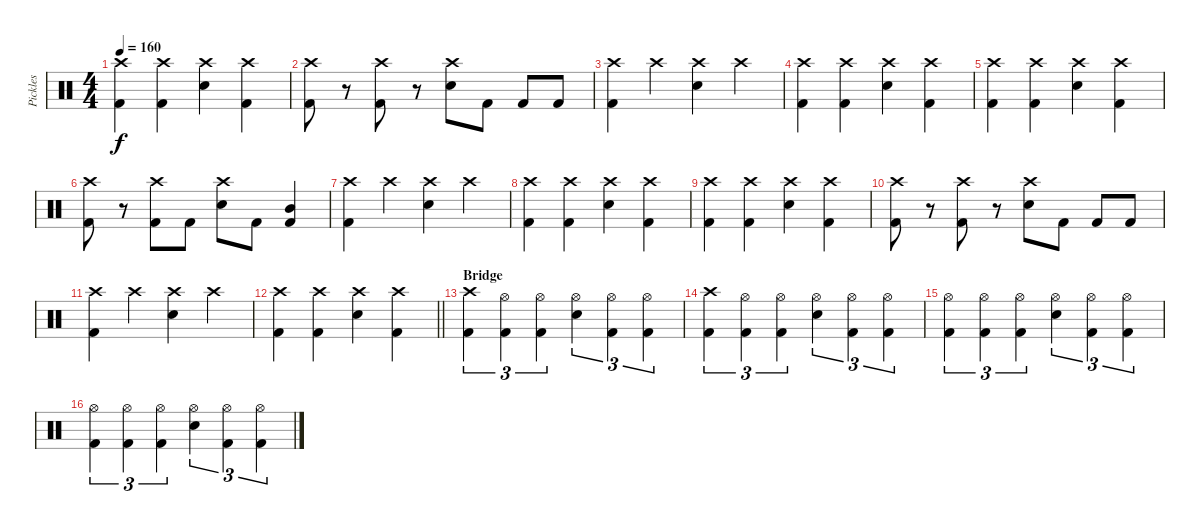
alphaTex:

\track ("Pickles" "Pickles") {instrument percussion}
\staff {score}
\articulation defaults
\ts (4 4)
\tempo 160
\clef neutral
\ks c
("Crash high (hit)" "Kick (hit) 2").4{dy f} ("Crash high (hit)" "Kick (hit) 2").4 ("Crash high (hit)" "Electric Snare (hit)").4 ("Crash high (hit)" "Kick (hit) 2").4 |
("Crash high (hit)" "Kick (hit) 2").8 r.8 ("Crash high (hit)" "Kick (hit) 2").8 r.8 ("Crash high (hit)" "Electric Snare (hit)").8 "Kick (hit) 2".8 "Kick (hit) 2".8 "Kick (hit) 2".8 |
("Crash high (hit)" "Kick (hit) 2").4 "Crash high (hit)".4 ("Crash high (hit)" "Electric Snare (hit)").4 "Crash high (hit)".4 |
("Crash high (hit)" "Kick (hit) 2").4 ("Crash high (hit)" "Kick (hit) 2").4 ("Crash high (hit)" "Electric Snare (hit)").4 ("Crash high (hit)" "Kick (hit) 2").4 |
("Crash high (hit)" "Kick (hit) 2").4 ("Crash high (hit)" "Kick (hit) 2").4 ("Crash high (hit)" "Electric Snare (hit)").4 ("Crash high (hit)" "Kick (hit) 2").4 |
("Crash high (hit)" "Kick (hit) 2").8 r.8 ("Crash high (hit)" "Kick (hit) 2").8 "Kick (hit) 2".8 ("Crash high (hit)" "Electric Snare (hit)").8 "Kick (hit) 2".8 ("Mid Tom (hit)" "Kick (hit) 2").4 |
("Crash high (hit)" "Kick (hit) 2").4 "Crash high (hit)".4 ("Crash high (hit)" "Electric Snare (hit)").4 "Crash high (hit)".4 |
("Crash high (hit)" "Kick (hit) 2").4 ("Crash high (hit)" "Kick (hit) 2").4 ("Crash high (hit)" "Electric Snare (hit)").4 ("Crash high (hit)" "Kick (hit) 2").4 |
("Crash high (hit)" "Kick (hit) 2").4 ("Crash high (hit)" "Kick (hit) 2").4 ("Crash high (hit)" "Electric Snare (hit)").4 ("Crash high (hit)" "Kick (hit) 2").4 |
("Crash high (hit)" "Kick (hit) 2").8 r.8 ("Crash high (hit)" "Kick (hit) 2").8 r.8 ("Crash high (hit)" "Electric Snare (hit)").8 "Kick (hit) 2".8 "Kick (hit) 2".8 "Kick (hit) 2".8 |
("Crash high (hit)" "Kick (hit) 2").4 "Crash high (hit)".4 ("Crash high (hit)" "Electric Snare (hit)").4 "Crash high (hit)".4 |
\barLineRight lightlight
("Crash high (hit)" "Kick (hit) 2").4 ("Crash high (hit)" "Kick (hit) 2").4 ("Crash high (hit)" "Electric Snare (hit)").4 ("Crash high (hit)" "Kick (hit) 2").4 |
\section ("" "Bridge")
("Crash high (hit)" "Kick (hit) 2").4{tu (3 2)} ("Hi-Hat (open)" "Kick (hit) 2").4{tu (3 2)} ("Hi-Hat (open)" "Kick (hit) 2").4{tu (3 2)} ("Hi-Hat (open)" "Electric Snare (hit)").4{tu (3 2)} ("Hi-Hat (open)" "Kick (hit) 2").4{tu (3 2)} ("Hi-Hat (open)" "Kick (hit) 2").4{tu (3 2)} |
("Crash high (hit)" "Kick (hit) 2").4{tu (3 2)} ("Hi-Hat (open)" "Kick (hit) 2").4{tu (3 2)} ("Hi-Hat (open)" "Kick (hit) 2").4{tu (3 2)} ("Hi-Hat (open)" "Electric Snare (hit)").4{tu (3 2)} ("Hi-Hat (open)" "Kick (hit) 2").4{tu (3 2)} ("Hi-Hat (open)" "Kick (hit) 2").4{tu (3 2)} |
("Hi-Hat (open)" "Kick (hit) 2").4{tu (3 2)} ("Hi-Hat (open)" "Kick (hit) 2").4{tu (3 2)} ("Hi-Hat (open)" "Kick (hit) 2").4{tu (3 2)} ("Hi-Hat (open)" "Electric Snare (hit)").4{tu (3 2)} ("Hi-Hat (open)" "Kick (hit) 2").4{tu (3 2)} ("Hi-Hat (open)" "Kick (hit) 2").4{tu (3 2)} |
("Hi-Hat (open)" "Kick (hit) 2").4{tu (3 2)} ("Hi-Hat (open)" "Kick (hit) 2").4{tu (3 2)} ("Hi-Hat (open)" "Kick (hit) 2").4{tu (3 2)} ("Hi-Hat (open)" "Electric Snare (hit)").4{tu (3 2)} ("Hi-Hat (open)" "Kick (hit) 2").4{tu (3 2)} ("Hi-Hat (open)" "Kick (hit) 2").4{tu (3 2)}
